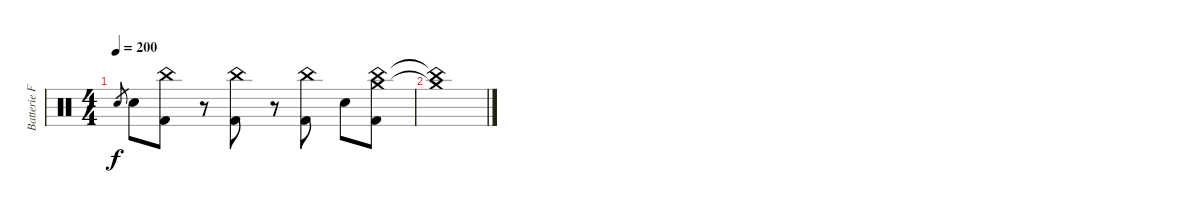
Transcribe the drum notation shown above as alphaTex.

\track ("Batterie Franck" "Batterie F") {instrument percussion}
\staff {score}
\articulation defaults
\ts (4 4)
\tempo 200
\clef neutral
\ks c "Snare (hit) 2".8{gr dy f} "Snare (hit) 2".8
("China (hit)" "Kick (hit) 2").8 r.8 ("China (hit)" "Kick (hit) 2").8 r.8 ("China (hit)" "Kick (hit) 2").8 "Snare (hit) 2".8 ("China (hit)" "Crash medium (hit)" "Kick (hit) 2").8 |
("China (hit)"{t} "Crash medium (hit)"{t}).1
